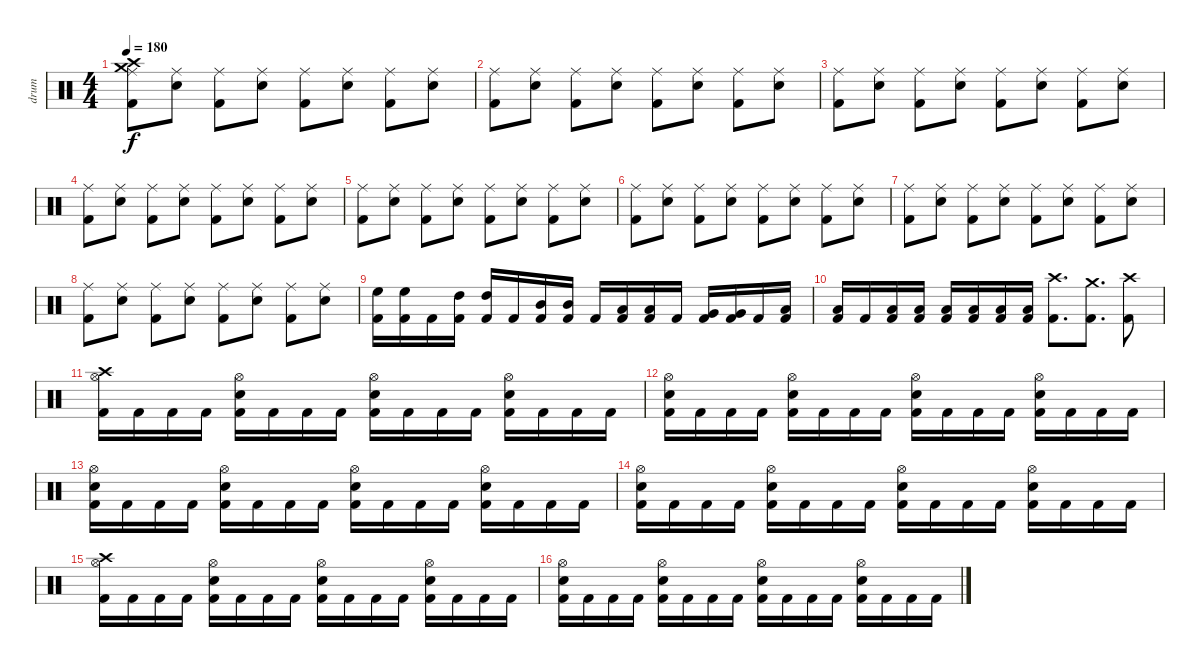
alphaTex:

\track ("drum" "drum") {instrument percussion}
\staff {score}
\articulation defaults
\ts (4 4)
\tempo 180
\clef neutral
\ks c
("Crash medium (hit)" "Ride (middle)" "Crash high (hit)" "Kick (hit) 2").8{dy f} ("Ride (middle)" "Electric Snare (hit)").8 ("Ride (middle)" "Kick (hit) 2").8 ("Ride (middle)" "Electric Snare (hit)").8 ("Ride (middle)" "Kick (hit) 2").8 ("Ride (middle)" "Electric Snare (hit)").8 ("Ride (middle)" "Kick (hit) 2").8 ("Ride (middle)" "Electric Snare (hit)").8 |
("Ride (middle)" "Kick (hit) 2").8 ("Ride (middle)" "Electric Snare (hit)").8 ("Ride (middle)" "Kick (hit) 2").8 ("Ride (middle)" "Electric Snare (hit)").8 ("Ride (middle)" "Kick (hit) 2").8 ("Ride (middle)" "Electric Snare (hit)").8 ("Ride (middle)" "Kick (hit) 2").8 ("Ride (middle)" "Electric Snare (hit)").8 |
("Ride (middle)" "Kick (hit) 2").8 ("Ride (middle)" "Electric Snare (hit)").8 ("Ride (middle)" "Kick (hit) 2").8 ("Ride (middle)" "Electric Snare (hit)").8 ("Ride (middle)" "Kick (hit) 2").8 ("Ride (middle)" "Electric Snare (hit)").8 ("Ride (middle)" "Kick (hit) 2").8 ("Ride (middle)" "Electric Snare (hit)").8 |
("Ride (middle)" "Kick (hit) 2").8 ("Ride (middle)" "Electric Snare (hit)").8 ("Ride (middle)" "Kick (hit) 2").8 ("Ride (middle)" "Electric Snare (hit)").8 ("Ride (middle)" "Kick (hit) 2").8 ("Ride (middle)" "Electric Snare (hit)").8 ("Ride (middle)" "Kick (hit) 2").8 ("Ride (middle)" "Electric Snare (hit)").8 |
("Ride (middle)" "Kick (hit) 2").8 ("Ride (middle)" "Electric Snare (hit)").8 ("Ride (middle)" "Kick (hit) 2").8 ("Ride (middle)" "Electric Snare (hit)").8 ("Ride (middle)" "Kick (hit) 2").8 ("Ride (middle)" "Electric Snare (hit)").8 ("Ride (middle)" "Kick (hit) 2").8 ("Ride (middle)" "Electric Snare (hit)").8 |
("Ride (middle)" "Kick (hit) 2").8 ("Ride (middle)" "Electric Snare (hit)").8 ("Ride (middle)" "Kick (hit) 2").8 ("Ride (middle)" "Electric Snare (hit)").8 ("Ride (middle)" "Kick (hit) 2").8 ("Ride (middle)" "Electric Snare (hit)").8 ("Ride (middle)" "Kick (hit) 2").8 ("Ride (middle)" "Electric Snare (hit)").8 |
("Ride (middle)" "Kick (hit) 2").8 ("Ride (middle)" "Electric Snare (hit)").8 ("Ride (middle)" "Kick (hit) 2").8 ("Ride (middle)" "Electric Snare (hit)").8 ("Ride (middle)" "Kick (hit) 2").8 ("Ride (middle)" "Electric Snare (hit)").8 ("Ride (middle)" "Kick (hit) 2").8 ("Ride (middle)" "Electric Snare (hit)").8 |
("Ride (middle)" "Kick (hit) 2").8 ("Ride (middle)" "Electric Snare (hit)").8 ("Ride (middle)" "Kick (hit) 2").8 ("Ride (middle)" "Electric Snare (hit)").8 ("Ride (middle)" "Kick (hit) 2").8 ("Ride (middle)" "Electric Snare (hit)").8 ("Ride (middle)" "Kick (hit) 2").8 ("Ride (middle)" "Electric Snare (hit)").8 |
("High Floor Tom (hit)" "Kick (hit) 2").16 ("High Floor Tom (hit)" "Kick (hit) 2").16 "Kick (hit) 2".16 ("High Tom (hit)" "Kick (hit) 2").16 ("High Tom (hit)" "Kick (hit) 2").16 "Kick (hit) 2".16 ("Mid Tom (hit)" "Kick (hit) 2").16 ("Mid Tom (hit)" "Kick (hit) 2").16 "Kick (hit) 2".16 ("Low Tom (hit)" "Kick (hit) 2").16 ("Low Tom (hit)" "Kick (hit) 2").16 "Kick (hit) 2".16 ("Very Low Tom (hit)" "Kick (hit) 2").16 ("Very Low Tom (hit)" "Kick (hit) 2").16 "Kick (hit) 2".16 ("Low Floor Tom (hit)" "Kick (hit) 2").16 |
("Low Floor Tom (hit)" "Kick (hit) 2").16 "Kick (hit) 2".16 ("Low Floor Tom (hit)" "Kick (hit) 2").16 ("Low Floor Tom (hit)" "Kick (hit) 2").16 ("Low Floor Tom (hit)" "Kick (hit) 2").16 ("Low Floor Tom (hit)" "Kick (hit) 2").16 ("Low Floor Tom (hit)" "Kick (hit) 2").16 ("Low Floor Tom (hit)" "Kick (hit) 2").16 ("Crash high (hit)" "Kick (hit) 2").8{d} ("Crash medium (hit)" "Kick (hit) 2").8{d} ("Crash high (hit)" "Kick (hit) 2").8 |
("Hi-Hat (open)" "Crash high (hit)" "Kick (hit) 2").16 "Kick (hit) 2".16 "Kick (hit) 2".16 "Kick (hit) 2".16 ("Hi-Hat (open)" "Electric Snare (hit)" "Kick (hit) 2").16 "Kick (hit) 2".16 "Kick (hit) 2".16 "Kick (hit) 2".16 ("Hi-Hat (open)" "Electric Snare (hit)" "Kick (hit) 2").16 "Kick (hit) 2".16 "Kick (hit) 2".16 "Kick (hit) 2".16 ("Hi-Hat (open)" "Electric Snare (hit)" "Kick (hit) 2").16 "Kick (hit) 2".16 "Kick (hit) 2".16 "Kick (hit) 2".16 |
("Hi-Hat (open)" "Electric Snare (hit)" "Kick (hit) 2").16 "Kick (hit) 2".16 "Kick (hit) 2".16 "Kick (hit) 2".16 ("Hi-Hat (open)" "Electric Snare (hit)" "Kick (hit) 2").16 "Kick (hit) 2".16 "Kick (hit) 2".16 "Kick (hit) 2".16 ("Hi-Hat (open)" "Electric Snare (hit)" "Kick (hit) 2").16 "Kick (hit) 2".16 "Kick (hit) 2".16 "Kick (hit) 2".16 ("Hi-Hat (open)" "Electric Snare (hit)" "Kick (hit) 2").16 "Kick (hit) 2".16 "Kick (hit) 2".16 "Kick (hit) 2".16 |
("Hi-Hat (open)" "Electric Snare (hit)" "Kick (hit) 2").16 "Kick (hit) 2".16 "Kick (hit) 2".16 "Kick (hit) 2".16 ("Hi-Hat (open)" "Electric Snare (hit)" "Kick (hit) 2").16 "Kick (hit) 2".16 "Kick (hit) 2".16 "Kick (hit) 2".16 ("Hi-Hat (open)" "Electric Snare (hit)" "Kick (hit) 2").16 "Kick (hit) 2".16 "Kick (hit) 2".16 "Kick (hit) 2".16 ("Hi-Hat (open)" "Electric Snare (hit)" "Kick (hit) 2").16 "Kick (hit) 2".16 "Kick (hit) 2".16 "Kick (hit) 2".16 |
("Hi-Hat (open)" "Electric Snare (hit)" "Kick (hit) 2").16 "Kick (hit) 2".16 "Kick (hit) 2".16 "Kick (hit) 2".16 ("Hi-Hat (open)" "Electric Snare (hit)" "Kick (hit) 2").16 "Kick (hit) 2".16 "Kick (hit) 2".16 "Kick (hit) 2".16 ("Hi-Hat (open)" "Electric Snare (hit)" "Kick (hit) 2").16 "Kick (hit) 2".16 "Kick (hit) 2".16 "Kick (hit) 2".16 ("Hi-Hat (open)" "Electric Snare (hit)" "Kick (hit) 2").16 "Kick (hit) 2".16 "Kick (hit) 2".16 "Kick (hit) 2".16 |
("Hi-Hat (open)" "Crash high (hit)" "Kick (hit) 2").16 "Kick (hit) 2".16 "Kick (hit) 2".16 "Kick (hit) 2".16 ("Hi-Hat (open)" "Electric Snare (hit)" "Kick (hit) 2").16 "Kick (hit) 2".16 "Kick (hit) 2".16 "Kick (hit) 2".16 ("Hi-Hat (open)" "Electric Snare (hit)" "Kick (hit) 2").16 "Kick (hit) 2".16 "Kick (hit) 2".16 "Kick (hit) 2".16 ("Hi-Hat (open)" "Electric Snare (hit)" "Kick (hit) 2").16 "Kick (hit) 2".16 "Kick (hit) 2".16 "Kick (hit) 2".16 |
("Hi-Hat (open)" "Electric Snare (hit)" "Kick (hit) 2").16 "Kick (hit) 2".16 "Kick (hit) 2".16 "Kick (hit) 2".16 ("Hi-Hat (open)" "Electric Snare (hit)" "Kick (hit) 2").16 "Kick (hit) 2".16 "Kick (hit) 2".16 "Kick (hit) 2".16 ("Hi-Hat (open)" "Electric Snare (hit)" "Kick (hit) 2").16 "Kick (hit) 2".16 "Kick (hit) 2".16 "Kick (hit) 2".16 ("Hi-Hat (open)" "Electric Snare (hit)" "Kick (hit) 2").16 "Kick (hit) 2".16 "Kick (hit) 2".16 "Kick (hit) 2".16
